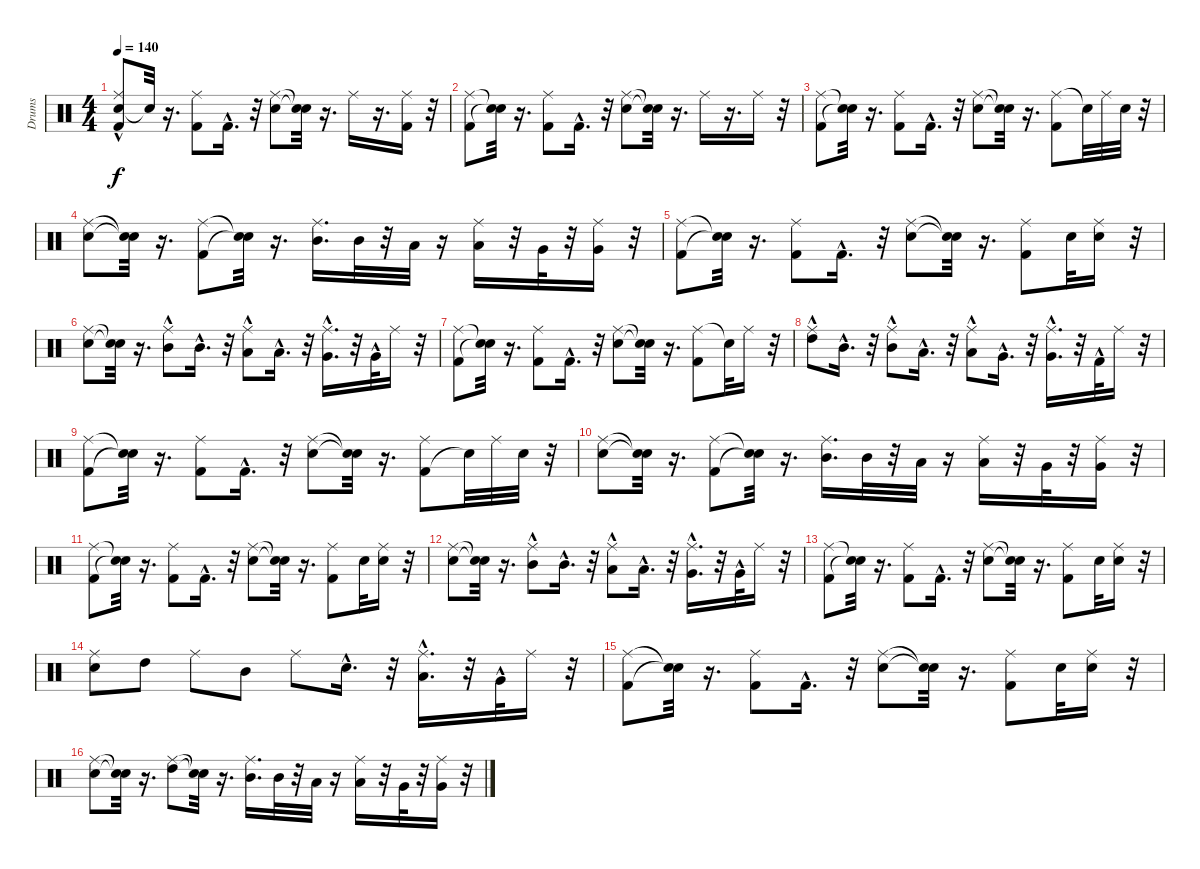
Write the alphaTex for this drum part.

\track ("Drums" "Drums") {instrument percussion}
\staff {score}
\articulation defaults
\ts (4 4)
\tempo 140
\clef neutral
\ks c
("Snare (hit) 2"{hac} "Ride (middle)" "Kick (hit) 2"{hac}).8{dy f} "Snare (hit)"{t}.32 r.16{d} ("Ride (middle)" "Kick (hit) 2").8 "Kick (hit) 2"{hac}.16{d} r.32 ("Snare (hit) 2" "Ride (middle)").8 ("Snare (hit)"{t} "Snare (hit)"{t}).32 r.16{d} "Ride (middle)".16 r.16{d} ("Ride (middle)" "Kick (hit) 2").16 r.32 |
("Kick (hit) 2" "Ride (middle)").8 ("Snare (hit)"{t} "Snare (hit)"{t}).32 r.16{d} ("Ride (middle)" "Kick (hit) 2").8 "Kick (hit) 2"{hac}.16{d} r.32 ("Snare (hit) 2" "Ride (middle)").8 ("Snare (hit)"{t} "Snare (hit)"{t}).32 r.16{d} "Ride (middle)".16 r.16{d} "Ride (middle)".16 r.32 |
("Kick (hit) 2" "Ride (middle)").8 ("Snare (hit)"{t} "Snare (hit)"{t}).32 r.16{d} ("Ride (middle)" "Kick (hit) 2").8 "Kick (hit) 2"{hac}.16{d} r.32 ("Snare (hit) 2" "Ride (middle)").8 ("Snare (hit)"{t} "Snare (hit)"{t}).32 r.16{d} ("Ride (middle)" "Kick (hit) 2").8 "Snare (hit)"{t}.32 "Ride (middle)".32 "Snare (hit) 2".32 r.32 |
("Snare (hit) 2" "Ride (middle)").8 ("Snare (hit)"{t} "Snare (hit)"{t}).32 r.16{d} ("Ride (middle)" "Kick (hit) 2").8 ("Snare (hit)"{t} "Snare (hit)"{t}).32 r.16{d} ("Ride (middle)" "Mid Tom (hit)").16{d} "Mid Tom (hit)".32 r.32 "Low Tom (hit)".32 r.16 ("Low Tom (hit)" "Ride (middle)").16 r.32 "Very Low Tom (hit)".32 r.32 ("Ride (middle)" "Very Low Tom (hit)").16 r.32 |
("Ride (middle)" "Kick (hit) 2").8 ("Snare (hit)"{t} "Snare (hit)"{t}).32 r.16{d} ("Kick (hit) 2" "Ride (middle)").8 "Kick (hit) 2"{hac}.16{d} r.32 ("Snare (hit) 2" "Ride (middle)").8 ("Snare (hit)"{t} "Snare (hit)"{t}).32 r.16{d} ("Kick (hit) 2" "Ride (middle)").8 "Snare (hit) 2".32 ("Snare (hit) 2" "Ride (middle)").16 r.32 |
("Snare (hit) 2" "Ride (middle)").8 ("Snare (hit)"{t} "Snare (hit)"{t}).32 r.16{d} ("Mid Tom (hit)"{hac} "Ride (middle)").8 "Mid Tom (hit)"{hac}.16{d} r.32 ("Ride (middle)" "Low Tom (hit)"{hac}).8 "Low Tom (hit)"{hac}.16{d} r.32 ("Very Low Tom (hit)"{hac} "Ride (middle)").16{d} r.32 "Very Low Tom (hit)"{hac}.32 "Ride (middle)".16 r.32 |
("Ride (middle)" "Kick (hit) 2").8 ("Snare (hit)"{t} "Snare (hit)"{t}).32 r.16{d} ("Kick (hit) 2" "Ride (middle)").8 "Kick (hit) 2"{hac}.16{d} r.32 ("Ride (middle)" "Snare (hit) 2").8 ("Snare (hit)"{t} "Snare (hit)"{t}).32 r.16{d} ("Ride (middle)" "Kick (hit) 2").8 "Snare (hit)"{t}.32 "Ride (middle)".16 r.32 |
("High Tom (hit)"{hac} "Ride (middle)").8 "Mid Tom (hit)"{hac}.16{d} r.32 ("Ride (middle)" "Mid Tom (hit)"{hac}).8 "Low Tom (hit)"{hac}.16{d} r.32 ("Low Tom (hit)"{hac} "Ride (middle)").8 "Very Low Tom (hit)"{hac}.16{d} r.32 ("Very Low Tom (hit)"{hac} "Ride (middle)").16{d} r.32 "Kick (hit) 2"{hac}.32 "Ride (middle)".16 r.32 |
("Ride (middle)" "Kick (hit) 2").8 ("Snare (hit)"{t} "Snare (hit)"{t}).32 r.16{d} ("Ride (middle)" "Kick (hit) 2").8 "Kick (hit) 2"{hac}.16{d} r.32 ("Snare (hit) 2" "Ride (middle)").8 ("Snare (hit)"{t} "Snare (hit)"{t}).32 r.16{d} ("Kick (hit) 2" "Ride (middle)").8 "Snare (hit)"{t}.32 "Ride (middle)".32 "Snare (hit) 2".32 r.32 |
("Snare (hit) 2" "Ride (middle)").8 ("Snare (hit)"{t} "Snare (hit)"{t}).32 r.16{d} ("Ride (middle)" "Kick (hit) 2").8 ("Snare (hit)"{t} "Snare (hit)"{t}).32 r.16{d} ("Ride (middle)" "Mid Tom (hit)").16{d} "Mid Tom (hit)".32 r.32 "Low Tom (hit)".32 r.16 ("Low Tom (hit)" "Ride (middle)").16 r.32 "Very Low Tom (hit)".32 r.32 ("Very Low Tom (hit)" "Ride (middle)").16 r.32 |
("Ride (middle)" "Kick (hit) 2").8 ("Snare (hit)"{t} "Snare (hit)"{t}).32 r.16{d} ("Ride (middle)" "Kick (hit) 2").8 "Kick (hit) 2"{hac}.16{d} r.32 ("Snare (hit) 2" "Ride (middle)").8 ("Snare (hit)"{t} "Snare (hit)"{t}).32 r.16{d} ("Kick (hit) 2" "Ride (middle)").8 "Snare (hit) 2".32 ("Snare (hit) 2" "Ride (middle)").16 r.32 |
("Ride (middle)" "Snare (hit) 2").8 ("Snare (hit)"{t} "Snare (hit)"{t}).32 r.16{d} ("Mid Tom (hit)"{hac} "Ride (middle)").8 "Mid Tom (hit)"{hac}.16{d} r.32 ("Low Tom (hit)"{hac} "Ride (middle)").8 "Low Tom (hit)"{hac}.16{d} r.32 ("Ride (middle)" "Very Low Tom (hit)"{hac}).16{d} r.32 "Very Low Tom (hit)"{hac}.32 "Ride (middle)".16 r.32 |
("Kick (hit) 2" "Ride (middle)").8 ("Snare (hit)"{t} "Snare (hit)"{t}).32 r.16{d} ("Kick (hit) 2" "Ride (middle)").8 "Kick (hit) 2"{hac}.16{d} r.32 ("Ride (middle)" "Snare (hit) 2").8 ("Snare (hit)"{t} "Snare (hit)"{t}).32 r.16{d} ("Kick (hit) 2" "Ride (middle)").8 "Snare (hit) 2".32 ("Ride (middle)" "Snare (hit) 2").16 r.32 |
("Snare (hit) 2" "Ride (middle)").8 "High Tom (hit)".8 "Ride (middle)".8 "Mid Tom (hit)".8 "Ride (middle)".8 "Snare (hit) 2"{hac}.16{d} r.32 ("Ride (middle)" "Low Tom (hit)"{hac}).16{d} r.32 "Very Low Tom (hit)"{hac}.32 "Ride (middle)".16 r.32 |
("Ride (middle)" "Kick (hit) 2").8 ("Snare (hit)"{t} "Snare (hit)"{t}).32 r.16{d} ("Ride (middle)" "Kick (hit) 2").8 "Kick (hit) 2"{hac}.16{d} r.32 ("Snare (hit) 2" "Ride (middle)").8 ("Snare (hit)"{t} "Snare (hit)"{t}).32 r.16{d} ("Ride (middle)" "Kick (hit) 2").8 "Snare (hit) 2".32 ("Snare (hit) 2" "Ride (middle)").16 r.32 |
("Snare (hit) 2" "Ride (middle)").8 ("Snare (hit)"{t} "Snare (hit)"{t}).32 r.16{d} ("High Tom (hit)" "Ride (middle)").8 ("Snare (hit)"{t} "Snare (hit)"{t}).32 r.16{d} ("Ride (middle)" "Mid Tom (hit)").16{d} "Mid Tom (hit)".32 r.32 "Low Tom (hit)".32 r.16 ("Ride (middle)" "Low Tom (hit)").16 r.32 "Very Low Tom (hit)".32 r.32 ("Very Low Tom (hit)" "Ride (middle)").16 r.32
